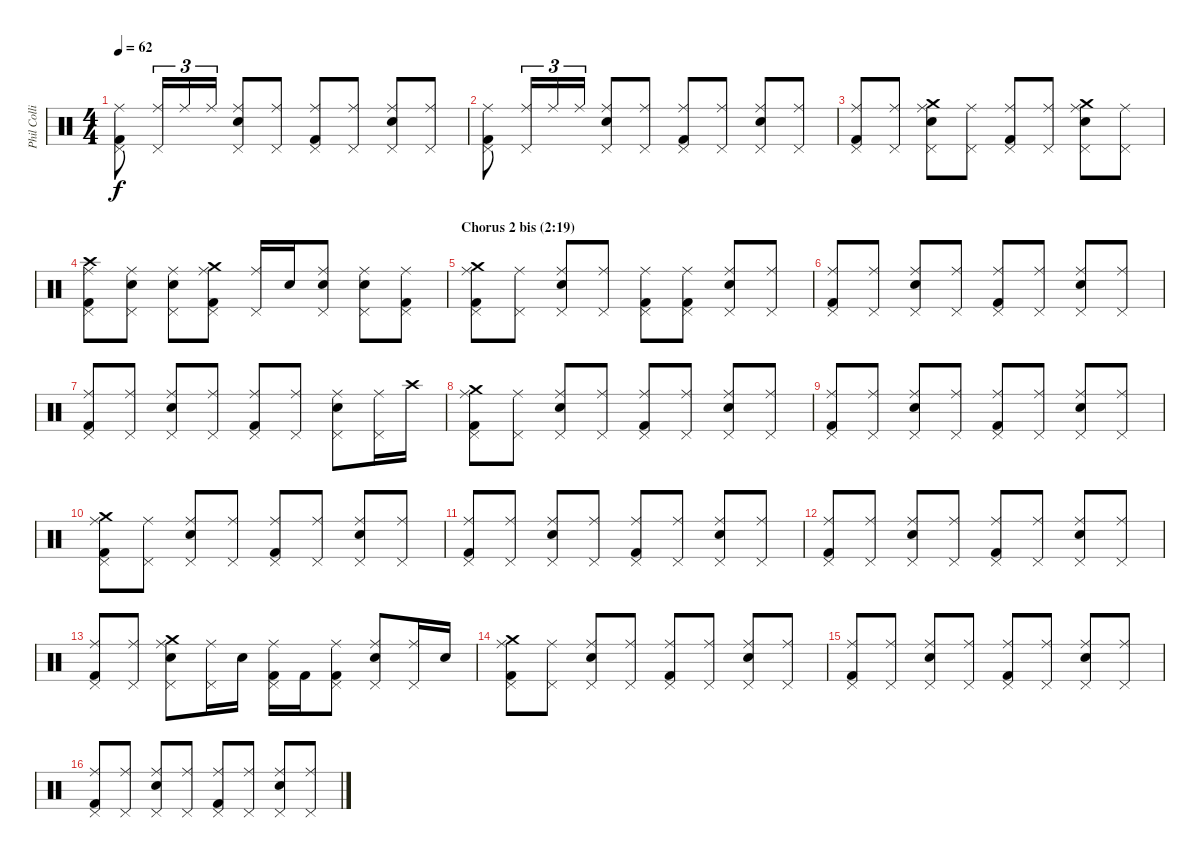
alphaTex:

\track ("Phil Collins (drums)" "Phil Colli") {instrument percussion}
\staff {score}
\articulation defaults
\ts (4 4)
\tempo 62
\clef neutral
\ks c
("Ride (middle)" "Pedal Hi-Hat (hit)" "Kick (hit) 2").8{dy f} ("Ride (middle)" "Pedal Hi-Hat (hit)").16{tu (3 2)} "Ride (middle)".16{tu (3 2)} "Ride (middle)".16{tu (3 2)} ("Ride (middle)" "Pedal Hi-Hat (hit)" "Electric Snare (hit)").8 ("Ride (middle)" "Pedal Hi-Hat (hit)").8 ("Ride (middle)" "Pedal Hi-Hat (hit)" "Kick (hit) 2").8 ("Ride (middle)" "Pedal Hi-Hat (hit)").8 ("Ride (middle)" "Pedal Hi-Hat (hit)" "Electric Snare (hit)").8 ("Ride (middle)" "Pedal Hi-Hat (hit)").8 |
("Ride (middle)" "Pedal Hi-Hat (hit)" "Kick (hit) 2").8 ("Ride (middle)" "Pedal Hi-Hat (hit)").16{tu (3 2)} "Ride (middle)".16{tu (3 2)} "Ride (middle)".16{tu (3 2)} ("Ride (middle)" "Pedal Hi-Hat (hit)" "Electric Snare (hit)").8 ("Ride (middle)" "Pedal Hi-Hat (hit)").8 ("Ride (middle)" "Pedal Hi-Hat (hit)" "Kick (hit) 2").8 ("Ride (middle)" "Pedal Hi-Hat (hit)").8 ("Ride (middle)" "Pedal Hi-Hat (hit)" "Electric Snare (hit)").8 ("Ride (middle)" "Pedal Hi-Hat (hit)").8 |
("Ride (middle)" "Pedal Hi-Hat (hit)" "Kick (hit) 2").8 ("Ride (middle)" "Pedal Hi-Hat (hit)").8 ("Crash medium (hit)" "Ride (middle)" "Pedal Hi-Hat (hit)" "Electric Snare (hit)").8 ("Ride (middle)" "Pedal Hi-Hat (hit)").8 ("Ride (middle)" "Pedal Hi-Hat (hit)" "Kick (hit) 2").8 ("Ride (middle)" "Pedal Hi-Hat (hit)").8 ("Crash medium (hit)" "Ride (middle)" "Pedal Hi-Hat (hit)" "Electric Snare (hit)").8 ("Ride (middle)" "Pedal Hi-Hat (hit)").8 |
("Crash high (hit)" "Ride (middle)" "Pedal Hi-Hat (hit)" "Kick (hit) 2").8 ("Ride (middle)" "Pedal Hi-Hat (hit)" "Electric Snare (hit)").8 ("Ride (middle)" "Pedal Hi-Hat (hit)" "Electric Snare (hit)").8 ("Crash medium (hit)" "Ride (middle)" "Pedal Hi-Hat (hit)" "Kick (hit) 2").8 ("Ride (middle)" "Pedal Hi-Hat (hit)").16 "Electric Snare (hit)".16 ("Ride (middle)" "Pedal Hi-Hat (hit)" "Electric Snare (hit)").8 ("Ride (middle)" "Pedal Hi-Hat (hit)" "Electric Snare (hit)").8 ("Ride (middle)" "Pedal Hi-Hat (hit)" "Kick (hit) 2").8 |
\section ("" "Chorus 2 bis (2:19)")
("Crash medium (hit)" "Ride (middle)" "Pedal Hi-Hat (hit)" "Kick (hit) 2").8 ("Ride (middle)" "Pedal Hi-Hat (hit)").8 ("Ride (middle)" "Pedal Hi-Hat (hit)" "Electric Snare (hit)").8 ("Ride (middle)" "Pedal Hi-Hat (hit)").8 ("Ride (middle)" "Pedal Hi-Hat (hit)" "Kick (hit) 2").8 ("Ride (middle)" "Pedal Hi-Hat (hit)" "Kick (hit) 2").8 ("Ride (middle)" "Pedal Hi-Hat (hit)" "Electric Snare (hit)").8 ("Ride (middle)" "Pedal Hi-Hat (hit)").8 |
("Ride (middle)" "Pedal Hi-Hat (hit)" "Kick (hit) 2").8 ("Ride (middle)" "Pedal Hi-Hat (hit)").8 ("Ride (middle)" "Pedal Hi-Hat (hit)" "Electric Snare (hit)").8 ("Ride (middle)" "Pedal Hi-Hat (hit)").8 ("Ride (middle)" "Pedal Hi-Hat (hit)" "Kick (hit) 2").8 ("Ride (middle)" "Pedal Hi-Hat (hit)").8 ("Ride (middle)" "Pedal Hi-Hat (hit)" "Electric Snare (hit)").8 ("Ride (middle)" "Pedal Hi-Hat (hit)").8 |
("Ride (middle)" "Pedal Hi-Hat (hit)" "Kick (hit) 2").8 ("Ride (middle)" "Pedal Hi-Hat (hit)").8 ("Ride (middle)" "Pedal Hi-Hat (hit)" "Electric Snare (hit)").8 ("Ride (middle)" "Pedal Hi-Hat (hit)").8 ("Ride (middle)" "Pedal Hi-Hat (hit)" "Kick (hit) 2").8 ("Ride (middle)" "Pedal Hi-Hat (hit)").8 ("Ride (middle)" "Pedal Hi-Hat (hit)" "Electric Snare (hit)").8 ("Ride (middle)" "Pedal Hi-Hat (hit)").16 "Crash high (hit)".16 |
("Crash medium (hit)" "Ride (middle)" "Pedal Hi-Hat (hit)" "Kick (hit) 2").8 ("Ride (middle)" "Pedal Hi-Hat (hit)").8 ("Ride (middle)" "Pedal Hi-Hat (hit)" "Electric Snare (hit)").8 ("Ride (middle)" "Pedal Hi-Hat (hit)").8 ("Ride (middle)" "Pedal Hi-Hat (hit)" "Kick (hit) 2").8 ("Ride (middle)" "Pedal Hi-Hat (hit)").8 ("Ride (middle)" "Pedal Hi-Hat (hit)" "Electric Snare (hit)").8 ("Ride (middle)" "Pedal Hi-Hat (hit)").8 |
("Ride (middle)" "Pedal Hi-Hat (hit)" "Kick (hit) 2").8 ("Ride (middle)" "Pedal Hi-Hat (hit)").8 ("Ride (middle)" "Pedal Hi-Hat (hit)" "Electric Snare (hit)").8 ("Ride (middle)" "Pedal Hi-Hat (hit)").8 ("Ride (middle)" "Pedal Hi-Hat (hit)" "Kick (hit) 2").8 ("Ride (middle)" "Pedal Hi-Hat (hit)").8 ("Ride (middle)" "Pedal Hi-Hat (hit)" "Electric Snare (hit)").8 ("Ride (middle)" "Pedal Hi-Hat (hit)").8 |
("Crash medium (hit)" "Ride (middle)" "Pedal Hi-Hat (hit)" "Kick (hit) 2").8 ("Ride (middle)" "Pedal Hi-Hat (hit)").8 ("Ride (middle)" "Pedal Hi-Hat (hit)" "Electric Snare (hit)").8 ("Ride (middle)" "Pedal Hi-Hat (hit)").8 ("Ride (middle)" "Pedal Hi-Hat (hit)" "Kick (hit) 2").8 ("Ride (middle)" "Pedal Hi-Hat (hit)").8 ("Ride (middle)" "Pedal Hi-Hat (hit)" "Electric Snare (hit)").8 ("Ride (middle)" "Pedal Hi-Hat (hit)").8 |
("Ride (middle)" "Pedal Hi-Hat (hit)" "Kick (hit) 2").8 ("Ride (middle)" "Pedal Hi-Hat (hit)").8 ("Ride (middle)" "Pedal Hi-Hat (hit)" "Electric Snare (hit)").8 ("Ride (middle)" "Pedal Hi-Hat (hit)").8 ("Ride (middle)" "Pedal Hi-Hat (hit)" "Kick (hit) 2").8 ("Ride (middle)" "Pedal Hi-Hat (hit)").8 ("Ride (middle)" "Pedal Hi-Hat (hit)" "Electric Snare (hit)").8 ("Ride (middle)" "Pedal Hi-Hat (hit)").8 |
("Ride (middle)" "Pedal Hi-Hat (hit)" "Kick (hit) 2").8 ("Ride (middle)" "Pedal Hi-Hat (hit)").8 ("Ride (middle)" "Pedal Hi-Hat (hit)" "Electric Snare (hit)").8 ("Ride (middle)" "Pedal Hi-Hat (hit)").8 ("Ride (middle)" "Pedal Hi-Hat (hit)" "Kick (hit) 2").8 ("Ride (middle)" "Pedal Hi-Hat (hit)").8 ("Ride (middle)" "Pedal Hi-Hat (hit)" "Electric Snare (hit)").8 ("Ride (middle)" "Pedal Hi-Hat (hit)").8 |
("Ride (middle)" "Pedal Hi-Hat (hit)" "Kick (hit) 2").8 ("Ride (middle)" "Pedal Hi-Hat (hit)").8 ("Crash medium (hit)" "Ride (middle)" "Pedal Hi-Hat (hit)" "Electric Snare (hit)").8 ("Ride (middle)" "Pedal Hi-Hat (hit)").16 "Electric Snare (hit)".16 ("Ride (middle)" "Pedal Hi-Hat (hit)" "Kick (hit) 2").16 "Kick (hit) 2".16 ("Ride (middle)" "Pedal Hi-Hat (hit)" "Kick (hit) 2").8 ("Ride (middle)" "Pedal Hi-Hat (hit)" "Electric Snare (hit)").8 ("Ride (middle)" "Pedal Hi-Hat (hit)").16 "Electric Snare (hit)".16 |
("Crash medium (hit)" "Ride (middle)" "Pedal Hi-Hat (hit)" "Kick (hit) 2").8 ("Ride (middle)" "Pedal Hi-Hat (hit)").8 ("Ride (middle)" "Pedal Hi-Hat (hit)" "Electric Snare (hit)").8 ("Ride (middle)" "Pedal Hi-Hat (hit)").8 ("Ride (middle)" "Pedal Hi-Hat (hit)" "Kick (hit) 2").8 ("Ride (middle)" "Pedal Hi-Hat (hit)").8 ("Ride (middle)" "Pedal Hi-Hat (hit)" "Electric Snare (hit)").8 ("Ride (middle)" "Pedal Hi-Hat (hit)").8 |
("Ride (middle)" "Pedal Hi-Hat (hit)" "Kick (hit) 2").8 ("Ride (middle)" "Pedal Hi-Hat (hit)").8 ("Ride (middle)" "Pedal Hi-Hat (hit)" "Electric Snare (hit)").8 ("Ride (middle)" "Pedal Hi-Hat (hit)").8 ("Ride (middle)" "Pedal Hi-Hat (hit)" "Kick (hit) 2").8 ("Ride (middle)" "Pedal Hi-Hat (hit)").8 ("Ride (middle)" "Pedal Hi-Hat (hit)" "Electric Snare (hit)").8 ("Ride (middle)" "Pedal Hi-Hat (hit)").8 |
("Ride (middle)" "Pedal Hi-Hat (hit)" "Kick (hit) 2").8 ("Ride (middle)" "Pedal Hi-Hat (hit)").8 ("Ride (middle)" "Pedal Hi-Hat (hit)" "Electric Snare (hit)").8 ("Ride (middle)" "Pedal Hi-Hat (hit)").8 ("Ride (middle)" "Pedal Hi-Hat (hit)" "Kick (hit) 2").8 ("Ride (middle)" "Pedal Hi-Hat (hit)").8 ("Ride (middle)" "Pedal Hi-Hat (hit)" "Electric Snare (hit)").8 ("Ride (middle)" "Pedal Hi-Hat (hit)").8
